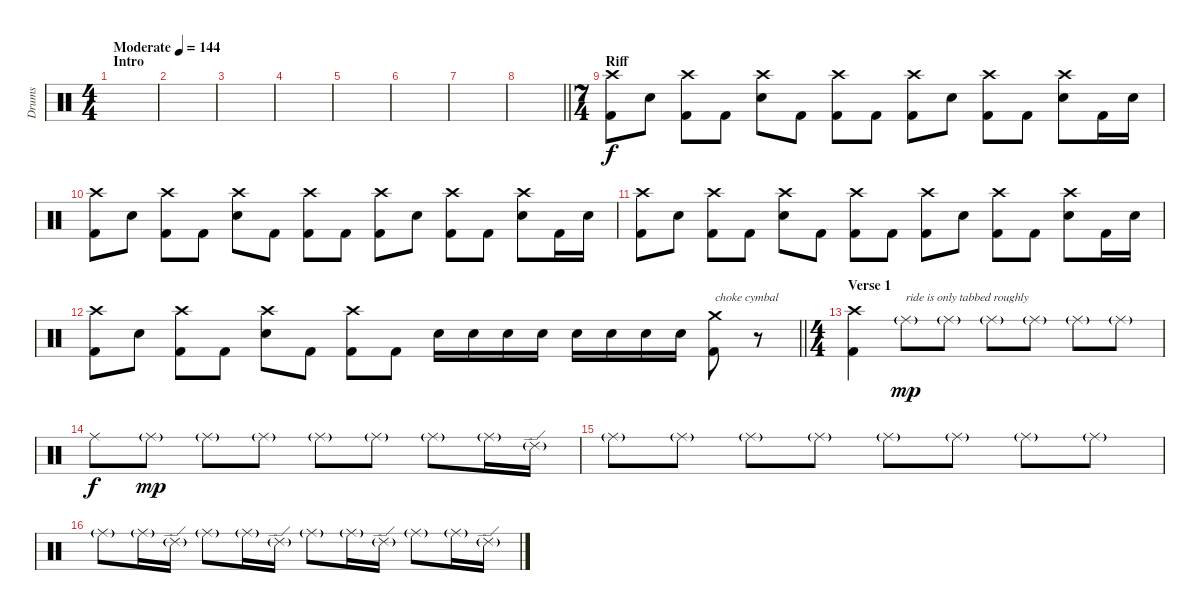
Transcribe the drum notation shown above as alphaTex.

\track ("Drums" "Drums") {instrument percussion}
\staff {score}
\articulation defaults
\ts (4 4)
\section ("" "Intro")
\tempo (144 "Moderate")
\clef neutral
\ks c
|
|
|
|
|
|
|
\barLineRight lightlight
|
\ts (7 4)
\section ("" "Riff")
("Crash high (hit)" "Kick (hit) 2").8 "Electric Snare (hit)".8 ("Crash high (hit)" "Kick (hit) 2").8 "Kick (hit) 2".8 ("Crash high (hit)" "Electric Snare (hit)").8 "Kick (hit) 2".8 ("Crash high (hit)" "Kick (hit) 2").8 "Kick (hit) 2".8 ("Crash high (hit)" "Kick (hit) 2").8 "Electric Snare (hit)".8 ("Crash high (hit)" "Kick (hit) 2").8 "Kick (hit) 2".8 ("Crash high (hit)" "Electric Snare (hit)").8 "Kick (hit) 2".16 "Electric Snare (hit)".16 |
("Crash high (hit)" "Kick (hit) 2").8 "Electric Snare (hit)".8 ("Crash high (hit)" "Kick (hit) 2").8 "Kick (hit) 2".8 ("Crash high (hit)" "Electric Snare (hit)").8 "Kick (hit) 2".8 ("Crash high (hit)" "Kick (hit) 2").8 "Kick (hit) 2".8 ("Crash high (hit)" "Kick (hit) 2").8 "Electric Snare (hit)".8 ("Crash high (hit)" "Kick (hit) 2").8 "Kick (hit) 2".8 ("Crash high (hit)" "Electric Snare (hit)").8 "Kick (hit) 2".16 "Electric Snare (hit)".16 |
("Crash high (hit)" "Kick (hit) 2").8 "Electric Snare (hit)".8 ("Crash high (hit)" "Kick (hit) 2").8 "Kick (hit) 2".8 ("Crash high (hit)" "Electric Snare (hit)").8 "Kick (hit) 2".8 ("Crash high (hit)" "Kick (hit) 2").8 "Kick (hit) 2".8 ("Crash high (hit)" "Kick (hit) 2").8 "Electric Snare (hit)".8 ("Crash high (hit)" "Kick (hit) 2").8 "Kick (hit) 2".8 ("Crash high (hit)" "Electric Snare (hit)").8 "Kick (hit) 2".16 "Electric Snare (hit)".16 |
\barLineRight lightlight
("Crash high (hit)" "Kick (hit) 2").8 "Electric Snare (hit)".8 ("Crash high (hit)" "Kick (hit) 2").8 "Kick (hit) 2".8 ("Crash high (hit)" "Electric Snare (hit)").8 "Kick (hit) 2".8 ("Crash high (hit)" "Kick (hit) 2").8 "Kick (hit) 2".8 "Electric Snare (hit)".16 "Electric Snare (hit)".16 "Electric Snare (hit)".16 "Electric Snare (hit)".16 "Electric Snare (hit)".16 "Electric Snare (hit)".16 "Electric Snare (hit)".16 "Electric Snare (hit)".16 ("Crash medium (hit)" "Kick (hit) 2").8{txt "choke cymbal"} r.8{volume 0} |
\ts (4 4)
\section ("" "Verse 1")
("Crash high (hit)" "Kick (hit) 2").4{volume 14} "Ride (middle)"{g}.8{txt "ride is only tabbed roughly" dy mp} "Ride (middle)"{g}.8 "Ride (middle)"{g}.8 "Ride (middle)"{g}.8 "Ride (middle)"{g}.8 "Ride (middle)"{g}.8 |
"Ride (middle)".8{dy f} "Ride (middle)"{g}.8{dy mp} "Ride (middle)"{g}.8 "Ride (middle)"{g}.8 "Ride (middle)"{g}.8 "Ride (middle)"{g}.8 "Ride (middle)"{g}.8 "Ride (middle)"{g}.16 "Ride (edge) 2"{g}.16 |
"Ride (middle)"{g}.8 "Ride (middle)"{g}.8 "Ride (middle)"{g}.8 "Ride (middle)"{g}.8 "Ride (middle)"{g}.8 "Ride (middle)"{g}.8 "Ride (middle)"{g}.8 "Ride (middle)"{g}.8 |
"Ride (middle)"{g}.8 "Ride (middle)"{g}.16 "Ride (edge) 2"{g}.16 "Ride (middle)"{g}.8 "Ride (middle)"{g}.16 "Ride (edge) 2"{g}.16 "Ride (middle)"{g}.8 "Ride (middle)"{g}.16 "Ride (edge) 2"{g}.16 "Ride (middle)"{g}.8 "Ride (middle)"{g}.16 "Ride (edge) 2"{g}.16
